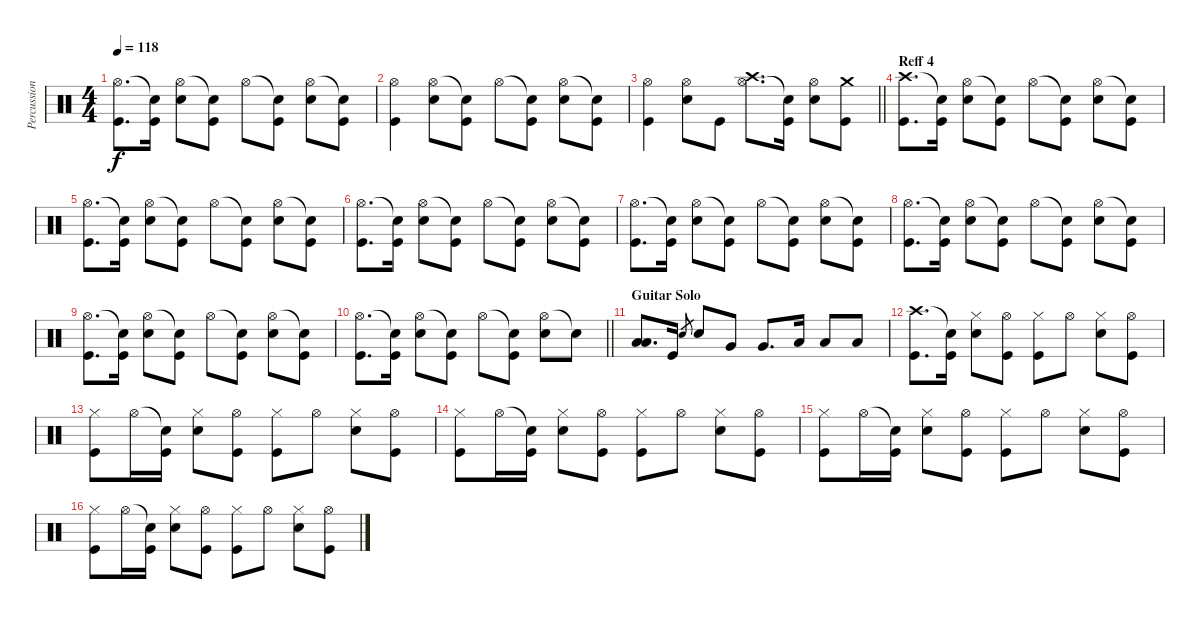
\track ("Percussion 1" "Percussion") {instrument percussion}
\staff {score}
\articulation defaults
\ts (4 4)
\tempo 118
\clef neutral
\ks c
("Hi-Hat (open)" "Kick (hit)").8{d dy f} ("Snare (hit)"{t} "Kick (hit)").16 ("Hi-Hat (open)" "Electric Snare (hit)").8 ("Snare (hit)"{t} "Kick (hit)").8 "Hi-Hat (open)".8 ("Snare (hit)"{t} "Kick (hit)").8 ("Hi-Hat (open)" "Electric Snare (hit)").8 ("Snare (hit)"{t} "Kick (hit)").8 |
("Hi-Hat (open)" "Kick (hit)").4 ("Hi-Hat (open)" "Electric Snare (hit)").8 ("Snare (hit)"{t} "Kick (hit)").8 "Hi-Hat (open)".8 ("Snare (hit)"{t} "Kick (hit)").8 ("Hi-Hat (open)" "Electric Snare (hit)").8 ("Snare (hit)"{t} "Kick (hit)").8 |
\barLineRight lightlight
("Hi-Hat (open)" "Kick (hit)").4 ("Hi-Hat (open)" "Electric Snare (hit)").8 "Kick (hit)".8 ("Hi-Hat (open)" "Crash high (hit)").8{d} ("Snare (hit)"{t} "Kick (hit)").16 ("Hi-Hat (open)" "Electric Snare (hit)").8 ("Crash medium (hit)" "Kick (hit)").8 |
\section ("" "Reff 4")
("Crash high (hit)" "Kick (hit)").8{d} ("Snare (hit)"{t} "Kick (hit)").16 ("Hi-Hat (open)" "Electric Snare (hit)").8 ("Snare (hit)"{t} "Kick (hit)").8 "Hi-Hat (open)".8 ("Snare (hit)"{t} "Kick (hit)").8 ("Hi-Hat (open)" "Electric Snare (hit)").8 ("Snare (hit)"{t} "Kick (hit)").8 |
("Hi-Hat (open)" "Kick (hit)").8{d} ("Snare (hit)"{t} "Kick (hit)").16 ("Hi-Hat (open)" "Electric Snare (hit)").8 ("Snare (hit)"{t} "Kick (hit)").8 "Hi-Hat (open)".8 ("Snare (hit)"{t} "Kick (hit)").8 ("Hi-Hat (open)" "Electric Snare (hit)").8 ("Snare (hit)"{t} "Kick (hit)").8 |
("Hi-Hat (open)" "Kick (hit)").8{d} ("Snare (hit)"{t} "Kick (hit)").16 ("Hi-Hat (open)" "Electric Snare (hit)").8 ("Snare (hit)"{t} "Kick (hit)").8 "Hi-Hat (open)".8 ("Snare (hit)"{t} "Kick (hit)").8 ("Hi-Hat (open)" "Electric Snare (hit)").8 ("Snare (hit)"{t} "Kick (hit)").8 |
("Hi-Hat (open)" "Kick (hit)").8{d} ("Snare (hit)"{t} "Kick (hit)").16 ("Hi-Hat (open)" "Electric Snare (hit)").8 ("Snare (hit)"{t} "Kick (hit)").8 "Hi-Hat (open)".8 ("Snare (hit)"{t} "Kick (hit)").8 ("Hi-Hat (open)" "Electric Snare (hit)").8 ("Snare (hit)"{t} "Kick (hit)").8 |
("Hi-Hat (open)" "Kick (hit)").8{d} ("Snare (hit)"{t} "Kick (hit)").16 ("Hi-Hat (open)" "Electric Snare (hit)").8 ("Snare (hit)"{t} "Kick (hit)").8 "Hi-Hat (open)".8 ("Snare (hit)"{t} "Kick (hit)").8 ("Hi-Hat (open)" "Electric Snare (hit)").8 ("Snare (hit)"{t} "Kick (hit)").8 |
("Hi-Hat (open)" "Kick (hit)").8{d} ("Snare (hit)"{t} "Kick (hit)").16 ("Hi-Hat (open)" "Electric Snare (hit)").8 ("Snare (hit)"{t} "Kick (hit)").8 "Hi-Hat (open)".8 ("Snare (hit)"{t} "Kick (hit)").8 ("Hi-Hat (open)" "Electric Snare (hit)").8 ("Snare (hit)"{t} "Kick (hit)").8 |
\barLineRight lightlight
("Hi-Hat (open)" "Kick (hit)").8{d} ("Snare (hit)"{t} "Kick (hit)").16 ("Hi-Hat (open)" "Electric Snare (hit)").8 ("Snare (hit)"{t} "Kick (hit)").8 "Hi-Hat (open)".8 ("Snare (hit)"{t} "Kick (hit)").8 ("Hi-Hat (open)" "Electric Snare (hit)").8 "Snare (hit)"{t}.8 |
\section ("" "Guitar Solo")
("Low Tom (hit)" "Low Floor Tom (hit)").8{d} "Kick (hit)".16 "Electric Snare (hit)".8{gr} "Electric Snare (hit)".8 "Very Low Tom (hit)".8 "Very Low Tom (hit)".8{d} "Low Floor Tom (hit)".16 "Low Floor Tom (hit)".8 "Low Tom (hit)".8 |
("Crash high (hit)" "Kick (hit)").8{d} ("Snare (hit)"{t} "Kick (hit)").16 ("Hi-Hat (closed)" "Electric Snare (hit)").8 ("Hi-Hat (open)" "Kick (hit)").8 ("Hi-Hat (closed)" "Kick (hit)").8 "Hi-Hat (open)".8 ("Hi-Hat (closed)" "Electric Snare (hit)").8 ("Hi-Hat (open)" "Kick (hit)").8 |
("Hi-Hat (closed)" "Kick (hit)").8 "Hi-Hat (open)".16 ("Snare (hit)"{t} "Kick (hit)").16 ("Hi-Hat (closed)" "Electric Snare (hit)").8 ("Hi-Hat (open)" "Kick (hit)").8 ("Hi-Hat (closed)" "Kick (hit)").8 "Hi-Hat (open)".8 ("Hi-Hat (closed)" "Electric Snare (hit)").8 ("Hi-Hat (open)" "Kick (hit)").8 |
("Hi-Hat (closed)" "Kick (hit)").8 "Hi-Hat (open)".16 ("Snare (hit)"{t} "Kick (hit)").16 ("Hi-Hat (closed)" "Electric Snare (hit)").8 ("Hi-Hat (open)" "Kick (hit)").8 ("Hi-Hat (closed)" "Kick (hit)").8 "Hi-Hat (open)".8 ("Hi-Hat (closed)" "Electric Snare (hit)").8 ("Hi-Hat (open)" "Kick (hit)").8 |
("Hi-Hat (closed)" "Kick (hit)").8 "Hi-Hat (open)".16 ("Snare (hit)"{t} "Kick (hit)").16 ("Hi-Hat (closed)" "Electric Snare (hit)").8 ("Hi-Hat (open)" "Kick (hit)").8 ("Hi-Hat (closed)" "Kick (hit)").8 "Hi-Hat (open)".8 ("Hi-Hat (closed)" "Electric Snare (hit)").8 ("Hi-Hat (open)" "Kick (hit)").8 |
("Hi-Hat (closed)" "Kick (hit)").8 "Hi-Hat (open)".16 ("Snare (hit)"{t} "Kick (hit)").16 ("Hi-Hat (closed)" "Electric Snare (hit)").8 ("Hi-Hat (open)" "Kick (hit)").8 ("Hi-Hat (closed)" "Kick (hit)").8 "Hi-Hat (open)".8 ("Hi-Hat (closed)" "Electric Snare (hit)").8 ("Hi-Hat (open)" "Kick (hit)").8
